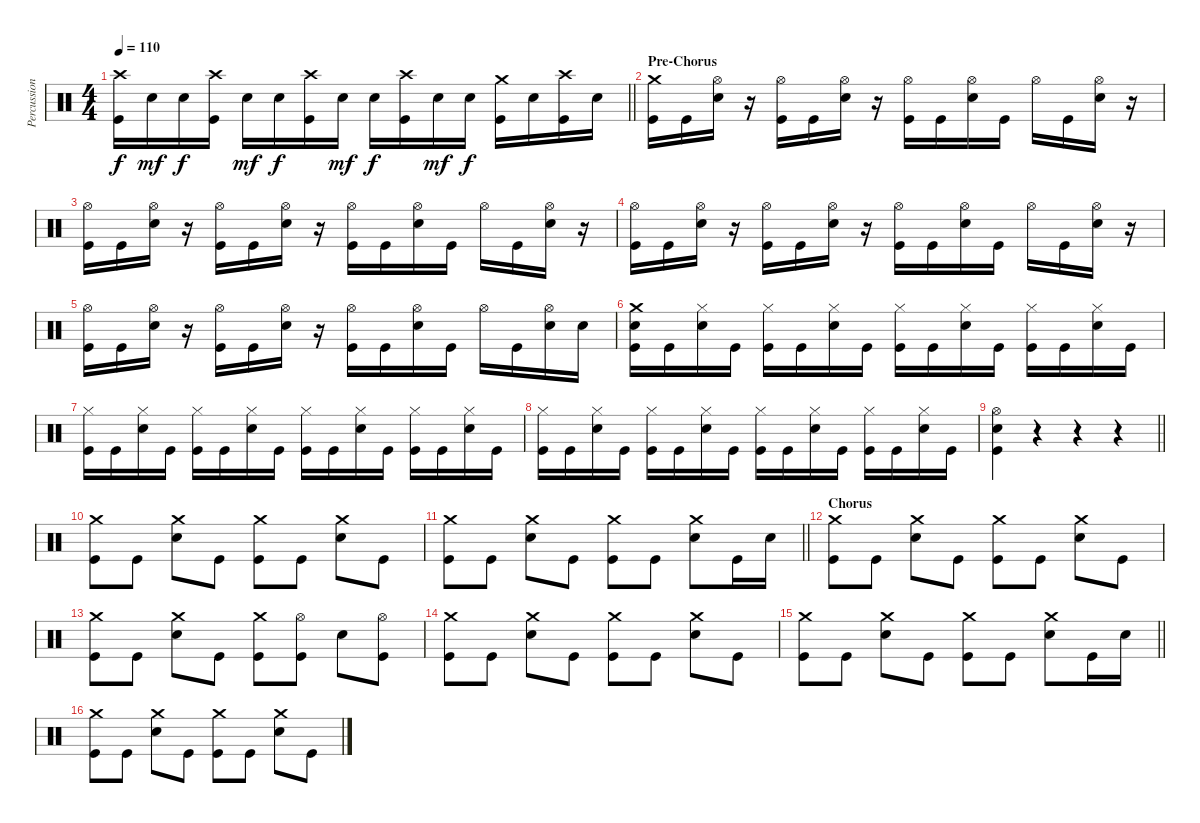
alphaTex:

\track ("Percussion" "Percussion") {instrument percussion}
\staff {score}
\articulation defaults
\ts (4 4)
\tempo 110
\clef neutral
\barLineRight lightlight
\ks c
("Crash high (hit)" "Kick (hit)").16{dy f} "Electric Snare (hit)".16{dy mf} "Electric Snare (hit)".16{dy f} ("Crash high (hit)" "Kick (hit)").16 "Electric Snare (hit)".16{dy mf} "Electric Snare (hit)".16{dy f} ("Crash high (hit)" "Kick (hit)").16 "Electric Snare (hit)".16{dy mf} "Electric Snare (hit)".16{dy f} ("Crash high (hit)" "Kick (hit)").16 "Electric Snare (hit)".16{dy mf} "Electric Snare (hit)".16{dy f} ("Crash medium (hit)" "Kick (hit)").16 "Electric Snare (hit)".16 ("Crash high (hit)" "Kick (hit)").16 "Electric Snare (hit)".16 |
\section ("" "Pre-Chorus")
("Crash medium (hit)" "Kick (hit)").16 "Kick (hit)".16 ("Hi-Hat (open)" "Electric Snare (hit)").16 r.16 ("Hi-Hat (open)" "Kick (hit)").16 "Kick (hit)".16 ("Hi-Hat (open)" "Electric Snare (hit)").16 r.16 ("Hi-Hat (open)" "Kick (hit)").16 "Kick (hit)".16 ("Hi-Hat (open)" "Electric Snare (hit)").16 "Kick (hit)".16 "Hi-Hat (open)".16 "Kick (hit)".16 ("Hi-Hat (open)" "Electric Snare (hit)").16 r.16 |
("Hi-Hat (open)" "Kick (hit)").16 "Kick (hit)".16 ("Hi-Hat (open)" "Electric Snare (hit)").16 r.16 ("Hi-Hat (open)" "Kick (hit)").16 "Kick (hit)".16 ("Hi-Hat (open)" "Electric Snare (hit)").16 r.16 ("Hi-Hat (open)" "Kick (hit)").16 "Kick (hit)".16 ("Hi-Hat (open)" "Electric Snare (hit)").16 "Kick (hit)".16 "Hi-Hat (open)".16 "Kick (hit)".16 ("Hi-Hat (open)" "Electric Snare (hit)").16 r.16 |
("Hi-Hat (open)" "Kick (hit)").16 "Kick (hit)".16 ("Hi-Hat (open)" "Electric Snare (hit)").16 r.16 ("Hi-Hat (open)" "Kick (hit)").16 "Kick (hit)".16 ("Hi-Hat (open)" "Electric Snare (hit)").16 r.16 ("Hi-Hat (open)" "Kick (hit)").16 "Kick (hit)".16 ("Hi-Hat (open)" "Electric Snare (hit)").16 "Kick (hit)".16 "Hi-Hat (open)".16 "Kick (hit)".16 ("Hi-Hat (open)" "Electric Snare (hit)").16 r.16 |
("Hi-Hat (open)" "Kick (hit)").16 "Kick (hit)".16 ("Hi-Hat (open)" "Electric Snare (hit)").16 r.16 ("Hi-Hat (open)" "Kick (hit)").16 "Kick (hit)".16 ("Hi-Hat (open)" "Electric Snare (hit)").16 r.16 ("Hi-Hat (open)" "Kick (hit)").16 "Kick (hit)".16 ("Hi-Hat (open)" "Electric Snare (hit)").16 "Kick (hit)".16 "Hi-Hat (open)".16 "Kick (hit)".16 ("Hi-Hat (open)" "Electric Snare (hit)").16 "Electric Snare (hit)".16 |
("Crash medium (hit)" "Electric Snare (hit)" "Kick (hit)").16 "Kick (hit)".16 ("Hi-Hat (closed)" "Electric Snare (hit)").16 "Kick (hit)".16 ("Hi-Hat (closed)" "Kick (hit)").16 "Kick (hit)".16 ("Hi-Hat (closed)" "Electric Snare (hit)").16 "Kick (hit)".16 ("Hi-Hat (closed)" "Kick (hit)").16 "Kick (hit)".16 ("Hi-Hat (closed)" "Electric Snare (hit)").16 "Kick (hit)".16 ("Hi-Hat (closed)" "Kick (hit)").16 "Kick (hit)".16 ("Hi-Hat (closed)" "Electric Snare (hit)").16 "Kick (hit)".16 |
("Hi-Hat (closed)" "Kick (hit)").16 "Kick (hit)".16 ("Hi-Hat (closed)" "Electric Snare (hit)").16 "Kick (hit)".16 ("Hi-Hat (closed)" "Kick (hit)").16 "Kick (hit)".16 ("Hi-Hat (closed)" "Electric Snare (hit)").16 "Kick (hit)".16 ("Hi-Hat (closed)" "Kick (hit)").16 "Kick (hit)".16 ("Hi-Hat (closed)" "Electric Snare (hit)").16 "Kick (hit)".16 ("Hi-Hat (closed)" "Kick (hit)").16 "Kick (hit)".16 ("Hi-Hat (closed)" "Electric Snare (hit)").16 "Kick (hit)".16 |
("Hi-Hat (closed)" "Kick (hit)").16 "Kick (hit)".16 ("Hi-Hat (closed)" "Electric Snare (hit)").16 "Kick (hit)".16 ("Hi-Hat (closed)" "Kick (hit)").16 "Kick (hit)".16 ("Hi-Hat (closed)" "Electric Snare (hit)").16 "Kick (hit)".16 ("Hi-Hat (closed)" "Kick (hit)").16 "Kick (hit)".16 ("Hi-Hat (closed)" "Electric Snare (hit)").16 "Kick (hit)".16 ("Hi-Hat (closed)" "Kick (hit)").16 "Kick (hit)".16 ("Hi-Hat (closed)" "Electric Snare (hit)").16 "Kick (hit)".16 |
\barLineRight lightlight
("Hi-Hat (open)" "Electric Snare (hit)" "Kick (hit)").4 r.4 r.4 r.4 |
\section ("" "")
("Crash medium (hit)" "Kick (hit)").8 "Kick (hit)".8 ("Crash medium (hit)" "Electric Snare (hit)").8 "Kick (hit)".8 ("Crash medium (hit)" "Kick (hit)").8 "Kick (hit)".8 ("Crash medium (hit)" "Electric Snare (hit)").8 "Kick (hit)".8 |
\barLineRight lightlight
("Crash medium (hit)" "Kick (hit)").8 "Kick (hit)".8 ("Crash medium (hit)" "Electric Snare (hit)").8 "Kick (hit)".8 ("Crash medium (hit)" "Kick (hit)").8 "Kick (hit)".8 ("Crash medium (hit)" "Electric Snare (hit)").8 "Kick (hit)".16 "Electric Snare (hit)".16 |
\section ("" "Chorus")
("Crash medium (hit)" "Kick (hit)").8 "Kick (hit)".8 ("Crash medium (hit)" "Electric Snare (hit)").8 "Kick (hit)".8 ("Crash medium (hit)" "Kick (hit)").8 "Kick (hit)".8 ("Crash medium (hit)" "Electric Snare (hit)").8 "Kick (hit)".8 |
("Crash medium (hit)" "Kick (hit)").8 "Kick (hit)".8 ("Crash medium (hit)" "Electric Snare (hit)").8 "Kick (hit)".8 ("Crash medium (hit)" "Kick (hit)").8 ("Hi-Hat (open)" "Kick (hit)").8 "Electric Snare (hit)".8 ("Hi-Hat (open)" "Kick (hit)").8 |
("Crash medium (hit)" "Kick (hit)").8 "Kick (hit)".8 ("Crash medium (hit)" "Electric Snare (hit)").8 "Kick (hit)".8 ("Crash medium (hit)" "Kick (hit)").8 "Kick (hit)".8 ("Crash medium (hit)" "Electric Snare (hit)").8 "Kick (hit)".8 |
\barLineRight lightlight
("Crash medium (hit)" "Kick (hit)").8 "Kick (hit)".8 ("Crash medium (hit)" "Electric Snare (hit)").8 "Kick (hit)".8 ("Crash medium (hit)" "Kick (hit)").8 "Kick (hit)".8 ("Crash medium (hit)" "Electric Snare (hit)").8 "Kick (hit)".16 "Electric Snare (hit)".16 |
("Crash medium (hit)" "Kick (hit)").8 "Kick (hit)".8 ("Crash medium (hit)" "Electric Snare (hit)").8 "Kick (hit)".8 ("Crash medium (hit)" "Kick (hit)").8 "Kick (hit)".8 ("Crash medium (hit)" "Electric Snare (hit)").8 "Kick (hit)".8
